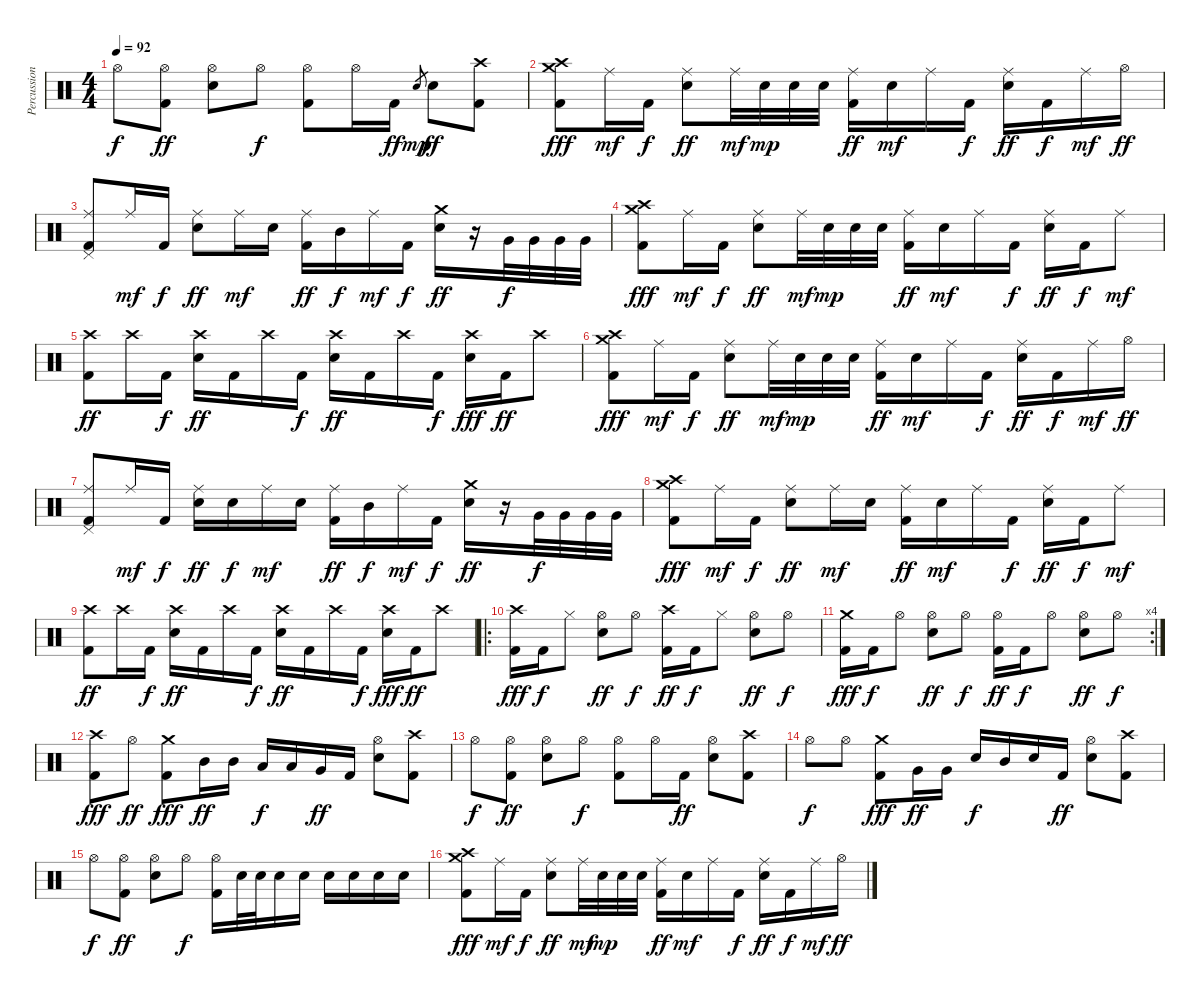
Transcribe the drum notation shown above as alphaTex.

\track ("Percussions" "Percussion") {instrument percussion}
\staff {score}
\articulation defaults
\ts (4 4)
\tempo 92
\clef neutral
\ks c "Hi-Hat (open)".8{dy f}
("Hi-Hat (open)" "Kick (hit) 2").8{dy ff} ("Hi-Hat (open)" "Electric Snare (hit)").8 "Hi-Hat (open)".8{dy f} ("Hi-Hat (open)" "Kick (hit) 2").8 "Hi-Hat (open)".16 "Kick (hit) 2".16{dy ff} "Electric Snare (hit)".8{gr dy mp} "Electric Snare (hit)".8{dy ff} ("Crash high (hit)" "Kick (hit) 2").8 |
("Crash medium (hit)" "Crash high (hit)" "Kick (hit) 2").8{dy fff} "Ride (middle)".16{dy mf} "Kick (hit) 2".16{dy f} ("Ride (middle)" "Electric Snare (hit)").8{dy ff} "Ride (middle)".32{dy mf} "Electric Snare (hit)".32{dy mp} "Electric Snare (hit)".32 "Electric Snare (hit)".32 ("Ride (middle)" "Kick (hit) 2").16{dy ff} "Electric Snare (hit)".16{dy mf} "Ride (middle)".16 "Kick (hit) 2".16{dy f} ("Ride (middle)" "Electric Snare (hit)").16{dy ff} "Kick (hit) 2".16{dy f} "Ride (middle)".16{dy mf} "Hi-Hat (open)".16{dy ff} |
("Pedal Hi-Hat (hit)" "Ride (middle)" "Kick (hit) 2").8 "Ride (middle)".16{dy mf} "Kick (hit) 2".16{dy f} ("Ride (middle)" "Electric Snare (hit)").8{dy ff} "Ride (middle)".16{dy mf} "Electric Snare (hit)".16 ("Ride (middle)" "Kick (hit) 2").16{dy ff} "Mid Tom (hit)".16{dy f} "Ride (middle)".16{dy mf} "Kick (hit) 2".16{dy f} ("Crash medium (hit)" "Electric Snare (hit)").16{dy ff} r.16 "Very Low Tom (hit)".32{dy f} "Very Low Tom (hit)".32 "Very Low Tom (hit)".32 "Very Low Tom (hit)".32 |
("Crash medium (hit)" "Crash high (hit)" "Kick (hit) 2").8{dy fff} "Ride (middle)".16{dy mf} "Kick (hit) 2".16{dy f} ("Ride (middle)" "Electric Snare (hit)").8{dy ff} "Ride (middle)".32{dy mf} "Electric Snare (hit)".32{dy mp} "Electric Snare (hit)".32 "Electric Snare (hit)".32 ("Ride (middle)" "Kick (hit) 2").16{dy ff} "Electric Snare (hit)".16{dy mf} "Ride (middle)".16 "Kick (hit) 2".16{dy f} ("Ride (middle)" "Electric Snare (hit)").16{dy ff} "Kick (hit) 2".16{dy f} "Ride (middle)".8{dy mf} |
("Crash high (hit)" "Kick (hit) 2").8{dy ff} "Crash high (hit)".16 "Kick (hit) 2".16{dy f} ("Crash high (hit)" "Electric Snare (hit)").16{dy ff} "Kick (hit) 2".16 "Crash high (hit)".16 "Kick (hit) 2".16{dy f} ("Crash high (hit)" "Electric Snare (hit)").16{dy ff} "Kick (hit) 2".16 "Crash high (hit)".16 "Kick (hit) 2".16{dy f} ("Crash high (hit)" "Electric Snare (hit)").16{dy fff} "Kick (hit) 2".16{dy ff} "Crash high (hit)".8 |
("Crash medium (hit)" "Crash high (hit)" "Kick (hit) 2").8{dy fff} "Ride (middle)".16{dy mf} "Kick (hit) 2".16{dy f} ("Ride (middle)" "Electric Snare (hit)").8{dy ff} "Ride (middle)".32{dy mf} "Electric Snare (hit)".32{dy mp} "Electric Snare (hit)".32 "Electric Snare (hit)".32 ("Ride (middle)" "Kick (hit) 2").16{dy ff} "Electric Snare (hit)".16{dy mf} "Ride (middle)".16 "Kick (hit) 2".16{dy f} ("Ride (middle)" "Electric Snare (hit)").16{dy ff} "Kick (hit) 2".16{dy f} "Ride (middle)".16{dy mf} "Hi-Hat (open)".16{dy ff} |
("Pedal Hi-Hat (hit)" "Ride (middle)" "Kick (hit) 2").8 "Ride (middle)".16{dy mf} "Kick (hit) 2".16{dy f} ("Ride (middle)" "Electric Snare (hit)").16{dy ff} "Electric Snare (hit)".16{dy f} "Ride (middle)".16{dy mf} "Electric Snare (hit)".16 ("Ride (middle)" "Kick (hit) 2").16{dy ff} "Mid Tom (hit)".16{dy f} "Ride (middle)".16{dy mf} "Kick (hit) 2".16{dy f} ("Crash medium (hit)" "Electric Snare (hit)").16{dy ff} r.16 "Very Low Tom (hit)".32{dy f} "Very Low Tom (hit)".32 "Very Low Tom (hit)".32 "Very Low Tom (hit)".32 |
("Crash medium (hit)" "Crash high (hit)" "Kick (hit) 2").8{dy fff} "Ride (middle)".16{dy mf} "Kick (hit) 2".16{dy f} ("Ride (middle)" "Electric Snare (hit)").8{dy ff} "Ride (middle)".16{dy mf} "Electric Snare (hit)".16 ("Ride (middle)" "Kick (hit) 2").16{dy ff} "Electric Snare (hit)".16{dy mf} "Ride (middle)".16 "Kick (hit) 2".16{dy f} ("Ride (middle)" "Electric Snare (hit)").16{dy ff} "Kick (hit) 2".16{dy f} "Ride (middle)".8{dy mf} |
("Crash high (hit)" "Kick (hit) 2").8{dy ff} "Crash high (hit)".16 "Kick (hit) 2".16{dy f} ("Crash high (hit)" "Electric Snare (hit)").16{dy ff} "Kick (hit) 2".16 "Crash high (hit)".16 "Kick (hit) 2".16{dy f} ("Crash high (hit)" "Electric Snare (hit)").16{dy ff} "Kick (hit) 2".16 "Crash high (hit)".16 "Kick (hit) 2".16{dy f} ("Crash high (hit)" "Electric Snare (hit)").16{dy fff} "Kick (hit) 2".16{dy ff} "Crash high (hit)".8 |
\ro
("Crash high (hit)" "Kick (hit) 2").16{dy fff} "Kick (hit) 2".16{dy f} "Hi-Hat (closed)".8 ("Hi-Hat (open)" "Electric Snare (hit)").8{dy ff} "Hi-Hat (open)".8{dy f} ("Crash high (hit)" "Kick (hit) 2").16{dy ff} "Kick (hit) 2".16{dy f} "Hi-Hat (closed)".8 ("Hi-Hat (open)" "Electric Snare (hit)").8{dy ff} "Hi-Hat (open)".8{dy f} |
\rc 4
("Crash medium (hit)" "Kick (hit) 2").16{dy fff} "Kick (hit) 2".16{dy f} "Hi-Hat (open)".8 ("Hi-Hat (open)" "Electric Snare (hit)").8{dy ff} "Hi-Hat (open)".8{dy f} ("Hi-Hat (open)" "Kick (hit) 2").16{dy ff} "Kick (hit) 2".16{dy f} "Hi-Hat (open)".8 ("Hi-Hat (open)" "Electric Snare (hit)").8{dy ff} "Hi-Hat (open)".8{dy f} |
("Crash high (hit)" "Kick (hit) 2").8{dy fff} "Hi-Hat (open)".8{dy ff} ("Crash medium (hit)" "Kick (hit) 2").8{dy fff} "Mid Tom (hit)".16{dy ff} "Mid Tom (hit)".16 "Low Tom (hit)".16{dy f} "Low Tom (hit)".16 "Very Low Tom (hit)".16{dy ff} "Kick (hit) 2".16 ("Hi-Hat (open)" "Electric Snare (hit)").8 ("Crash high (hit)" "Kick (hit) 2").8 |
"Hi-Hat (open)".8{dy f} ("Hi-Hat (open)" "Kick (hit) 2").8{dy ff} ("Hi-Hat (open)" "Electric Snare (hit)").8 "Hi-Hat (open)".8{dy f} ("Hi-Hat (open)" "Kick (hit) 2").8 "Hi-Hat (open)".16 "Kick (hit) 2".16{dy ff} ("Hi-Hat (open)" "Electric Snare (hit)").8 ("Crash high (hit)" "Kick (hit) 2").8 |
"Hi-Hat (open)".8{dy f} "Hi-Hat (open)".8 ("Crash medium (hit)" "Kick (hit) 2").8{dy fff} "Very Low Tom (hit)".16{dy ff} "Very Low Tom (hit)".16 "Electric Snare (hit)".16{dy f} "Mid Tom (hit)".16 "Electric Snare (hit)".16 "Kick (hit) 2".16{dy ff} ("Hi-Hat (open)" "Electric Snare (hit)").8 ("Crash high (hit)" "Kick (hit) 2").8 |
"Hi-Hat (open)".8{dy f} ("Hi-Hat (open)" "Kick (hit) 2").8{dy ff} ("Hi-Hat (open)" "Electric Snare (hit)").8 "Hi-Hat (open)".8{dy f} ("Hi-Hat (open)" "Kick (hit) 2").16 "Electric Snare (hit)".32 "Electric Snare (hit)".32 "Electric Snare (hit)".16 "Electric Snare (hit)".16 "Electric Snare (hit)".16 "Electric Snare (hit)".16 "Electric Snare (hit)".16 "Electric Snare (hit)".16 |
("Crash medium (hit)" "Crash high (hit)" "Kick (hit) 2").8{dy fff} "Ride (middle)".16{dy mf} "Kick (hit) 2".16{dy f} ("Ride (middle)" "Electric Snare (hit)").8{dy ff} "Ride (middle)".32{dy mf} "Electric Snare (hit)".32{dy mp} "Electric Snare (hit)".32 "Electric Snare (hit)".32 ("Ride (middle)" "Kick (hit) 2").16{dy ff} "Electric Snare (hit)".16{dy mf} "Ride (middle)".16 "Kick (hit) 2".16{dy f} ("Ride (middle)" "Electric Snare (hit)").16{dy ff} "Kick (hit) 2".16{dy f} "Ride (middle)".16{dy mf} "Hi-Hat (open)".16{dy ff}
